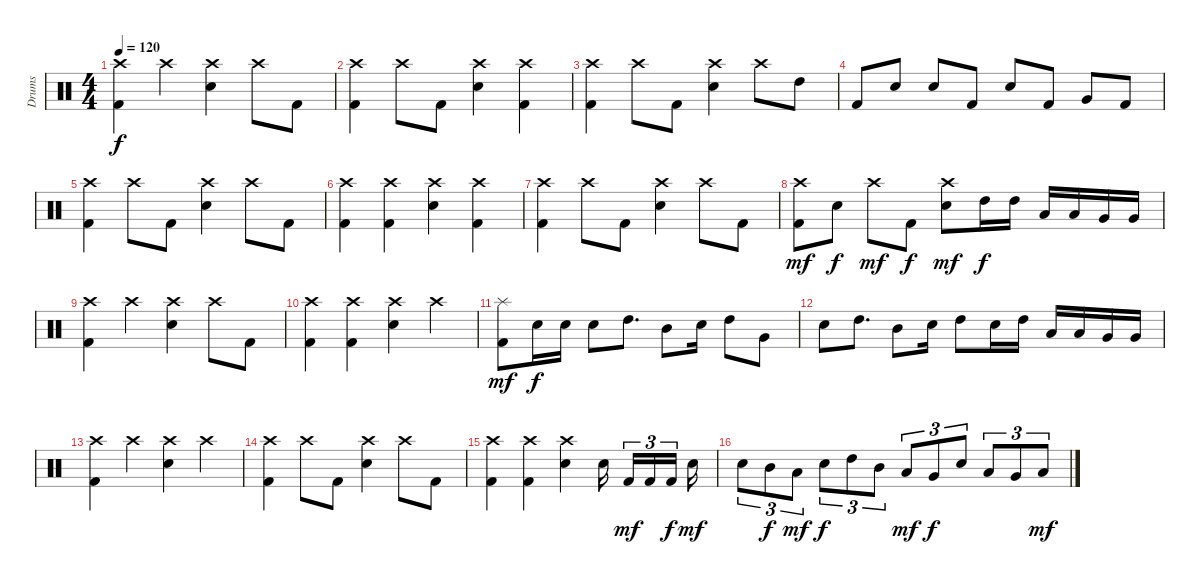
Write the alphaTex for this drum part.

\track ("Drums" "Drums") {instrument percussion}
\staff {score}
\articulation defaults
\ts (4 4)
\tempo 120
\clef neutral
\ks c
("Crash high (hit)" "Kick (hit) 2").4{dy f} "Crash high (hit)".4 ("Crash high (hit)" "Snare (hit) 2").4 "Crash high (hit)".8 "Kick (hit) 2".8 |
("Crash high (hit)" "Kick (hit) 2").4 "Crash high (hit)".8 "Kick (hit) 2".8 ("Crash high (hit)" "Snare (hit) 2").4 ("Crash high (hit)" "Kick (hit) 2").4 |
("Crash high (hit)" "Kick (hit) 2").4 "Crash high (hit)".8 "Kick (hit) 2".8 ("Crash high (hit)" "Snare (hit) 2").4 "Crash high (hit)".8 "High Tom (hit)".8 |
"Kick (hit) 2".8 "Snare (hit) 2".8 "Snare (hit) 2".8 "Kick (hit) 2".8 "Snare (hit) 2".8 "Kick (hit) 2".8 "Very Low Tom (hit)".8 "Kick (hit) 2".8 |
("Crash high (hit)" "Kick (hit) 2").4 "Crash high (hit)".8 "Kick (hit) 2".8 ("Crash high (hit)" "Snare (hit) 2").4 "Crash high (hit)".8 "Kick (hit) 2".8 |
("Crash high (hit)" "Kick (hit) 2").4 ("Crash high (hit)" "Kick (hit) 2").4 ("Crash high (hit)" "Snare (hit) 2").4 ("Crash high (hit)" "Kick (hit) 2").4 |
("Crash high (hit)" "Kick (hit) 2").4 "Crash high (hit)".8 "Kick (hit) 2".8 ("Crash high (hit)" "Snare (hit) 2").4 "Crash high (hit)".8 "Kick (hit) 2".8 |
("Crash high (hit)" "Kick (hit) 2").8{dy mf} "Snare (hit) 2".8{dy f} "Crash high (hit)".8{dy mf} "Kick (hit) 2".8{dy f} ("Crash high (hit)" "Snare (hit) 2").8{dy mf} "High Tom (hit)".16{dy f} "High Tom (hit)".16 "Low Tom (hit)".16 "Low Tom (hit)".16 "Very Low Tom (hit)".16 "Very Low Tom (hit)".16 |
("Crash high (hit)" "Kick (hit) 2").4 "Crash high (hit)".4 ("Crash high (hit)" "Snare (hit) 2").4 "Crash high (hit)".8 "Kick (hit) 2".8 |
("Crash high (hit)" "Kick (hit) 2").4 ("Crash high (hit)" "Kick (hit) 2").4 ("Crash high (hit)" "Snare (hit) 2").4 "Crash high (hit)".4 |
("Splash (hit)" "Kick (hit) 2").8{dy mf} "Snare (hit) 2".16{dy f} "Snare (hit) 2".16 "Snare (hit) 2".8 "High Tom (hit)".8{d} "Mid Tom (hit)".8 "Snare (hit) 2".16 "High Tom (hit)".8 "Very Low Tom (hit)".8 |
"Snare (hit) 2".8 "High Tom (hit)".8{d} "Mid Tom (hit)".8 "Snare (hit) 2".16 "High Tom (hit)".8 "Snare (hit) 2".16 "High Tom (hit)".16 "Low Tom (hit)".16 "Low Tom (hit)".16 "Very Low Tom (hit)".16 "Very Low Tom (hit)".16 |
("Crash high (hit)" "Kick (hit) 2").4 "Crash high (hit)".4 ("Crash high (hit)" "Snare (hit) 2").4 "Crash high (hit)".4 |
("Crash high (hit)" "Kick (hit) 2").4 "Crash high (hit)".8 "Kick (hit) 2".8 ("Crash high (hit)" "Snare (hit) 2").4 "Crash high (hit)".8 "Kick (hit) 2".8 |
("Crash high (hit)" "Kick (hit) 2").4 ("Crash high (hit)" "Kick (hit) 2").4 ("Crash high (hit)" "Snare (hit) 2").4 "Snare (hit) 2".16{beam splitsecondary} "Kick (hit) 2".16{tu (3 2) dy mf} "Kick (hit) 2".16{tu (3 2)} "Kick (hit) 2".16{tu (3 2) dy f beam splitsecondary} "Snare (hit) 2".16{dy mf} |
"Snare (hit) 2".8{tu (3 2)} "Mid Tom (hit)".8{tu (3 2) dy f} "Low Tom (hit)".8{tu (3 2) dy mf} "Snare (hit) 2".8{tu (3 2) dy f} "High Tom (hit)".8{tu (3 2)} "Mid Tom (hit)".8{tu (3 2)} "Low Tom (hit)".8{tu (3 2) dy mf} "Very Low Tom (hit)".8{tu (3 2) dy f} "Snare (hit) 2".8{tu (3 2)} "Low Tom (hit)".8{tu (3 2)} "Very Low Tom (hit)".8{tu (3 2)} "Low Floor Tom (hit)".8{tu (3 2) dy mf}
